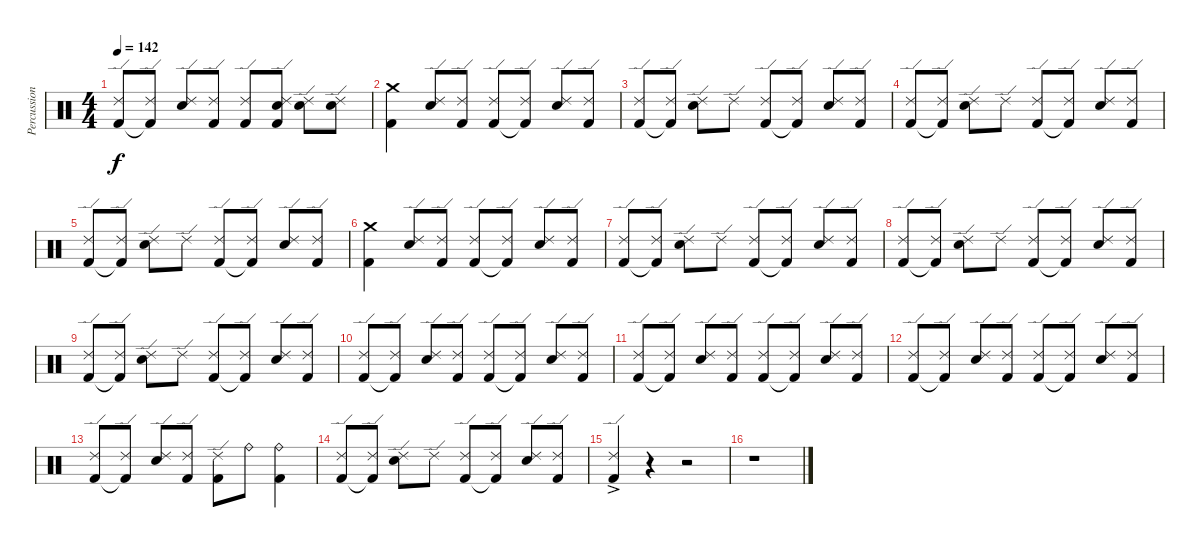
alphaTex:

\track ("Percussion" "Percussion") {instrument percussion}
\staff {score}
\articulation defaults
\ts (4 4)
\tempo 142
\clef neutral
\ks c
("Ride (edge) 2" "Kick (hit) 2").8{dy f} ("Ride (edge) 2" "Kick (hit) 2"{t}).8 ("Ride (edge) 2" "Snare (hit) 2").8 ("Ride (edge) 2" "Kick (hit) 2").8 ("Ride (edge) 2" "Kick (hit) 2").8 ("Ride (edge) 2" "Snare (hit) 2" "Kick (hit) 2").8 ("Ride (edge) 2" "Snare (hit) 2").8 ("Ride (edge) 2" "Snare (hit) 2").8 |
("Crash medium (hit)" "Kick (hit) 2").4 ("Ride (edge) 2" "Snare (hit) 2").8 ("Ride (edge) 2" "Kick (hit) 2").8 ("Ride (edge) 2" "Kick (hit) 2").8 ("Ride (edge) 2" "Kick (hit) 2"{t}).8 ("Ride (edge) 2" "Snare (hit) 2").8 ("Ride (edge) 2" "Kick (hit) 2").8 |
("Ride (edge) 2" "Kick (hit) 2").8 ("Ride (edge) 2" "Kick (hit) 2"{t}).8 ("Ride (edge) 2" "Snare (hit) 2").8 "Ride (edge) 2".8 ("Ride (edge) 2" "Kick (hit) 2").8 ("Ride (edge) 2" "Kick (hit) 2"{t}).8 ("Ride (edge) 2" "Snare (hit) 2").8 ("Ride (edge) 2" "Kick (hit) 2").8 |
("Ride (edge) 2" "Kick (hit) 2").8 ("Ride (edge) 2" "Kick (hit) 2"{t}).8 ("Ride (edge) 2" "Snare (hit) 2").8 "Ride (edge) 2".8 ("Ride (edge) 2" "Kick (hit) 2").8 ("Ride (edge) 2" "Kick (hit) 2"{t}).8 ("Ride (edge) 2" "Snare (hit) 2").8 ("Ride (edge) 2" "Kick (hit) 2").8 |
("Ride (edge) 2" "Kick (hit) 2").8 ("Ride (edge) 2" "Kick (hit) 2"{t}).8 ("Ride (edge) 2" "Snare (hit) 2").8 "Ride (edge) 2".8 ("Ride (edge) 2" "Kick (hit) 2").8 ("Ride (edge) 2" "Kick (hit) 2"{t}).8 ("Ride (edge) 2" "Snare (hit) 2").8 ("Ride (edge) 2" "Kick (hit) 2").8 |
("Crash medium (hit)" "Kick (hit) 2").4 ("Ride (edge) 2" "Snare (hit) 2").8 ("Ride (edge) 2" "Kick (hit) 2").8 ("Ride (edge) 2" "Kick (hit) 2").8 ("Ride (edge) 2" "Kick (hit) 2"{t}).8 ("Ride (edge) 2" "Snare (hit) 2").8 ("Ride (edge) 2" "Kick (hit) 2").8 |
("Ride (edge) 2" "Kick (hit) 2").8 ("Ride (edge) 2" "Kick (hit) 2"{t}).8 ("Ride (edge) 2" "Snare (hit) 2").8 "Ride (edge) 2".8 ("Ride (edge) 2" "Kick (hit) 2").8 ("Ride (edge) 2" "Kick (hit) 2"{t}).8 ("Ride (edge) 2" "Snare (hit) 2").8 ("Ride (edge) 2" "Kick (hit) 2").8 |
("Ride (edge) 2" "Kick (hit) 2").8 ("Ride (edge) 2" "Kick (hit) 2"{t}).8 ("Ride (edge) 2" "Snare (hit) 2").8 "Ride (edge) 2".8 ("Ride (edge) 2" "Kick (hit) 2").8 ("Ride (edge) 2" "Kick (hit) 2"{t}).8 ("Ride (edge) 2" "Snare (hit) 2").8 ("Ride (edge) 2" "Kick (hit) 2").8 |
("Ride (edge) 2" "Kick (hit) 2").8 ("Ride (edge) 2" "Kick (hit) 2"{t}).8 ("Ride (edge) 2" "Snare (hit) 2").8 "Ride (edge) 2".8 ("Ride (edge) 2" "Kick (hit) 2").8 ("Ride (edge) 2" "Kick (hit) 2"{t}).8 ("Ride (edge) 2" "Snare (hit) 2").8 ("Ride (edge) 2" "Kick (hit) 2").8 |
("Ride (edge) 2" "Kick (hit) 2").8 ("Ride (edge) 2" "Kick (hit) 2"{t}).8 ("Ride (edge) 2" "Snare (hit) 2").8 ("Ride (edge) 2" "Kick (hit) 2").8 ("Ride (edge) 2" "Kick (hit) 2").8 ("Ride (edge) 2" "Kick (hit) 2"{t}).8 ("Ride (edge) 2" "Snare (hit) 2").8 ("Ride (edge) 2" "Kick (hit) 2").8 |
("Ride (edge) 2" "Kick (hit) 2").8 ("Ride (edge) 2" "Kick (hit) 2"{t}).8 ("Ride (edge) 2" "Snare (hit) 2").8 ("Ride (edge) 2" "Kick (hit) 2").8 ("Ride (edge) 2" "Kick (hit) 2").8 ("Ride (edge) 2" "Kick (hit) 2"{t}).8 ("Ride (edge) 2" "Snare (hit) 2").8 ("Ride (edge) 2" "Kick (hit) 2").8 |
("Ride (edge) 2" "Kick (hit) 2").8 ("Ride (edge) 2" "Kick (hit) 2"{t}).8 ("Ride (edge) 2" "Snare (hit) 2").8 ("Ride (edge) 2" "Kick (hit) 2").8 ("Ride (edge) 2" "Kick (hit) 2").8 ("Ride (edge) 2" "Kick (hit) 2"{t}).8 ("Ride (edge) 2" "Snare (hit) 2").8 ("Ride (edge) 2" "Kick (hit) 2").8 |
("Ride (edge) 2" "Kick (hit) 2").8 ("Ride (edge) 2" "Kick (hit) 2"{t}).8 ("Ride (edge) 2" "Snare (hit) 2").8 ("Ride (edge) 2" "Kick (hit) 2").8 ("Ride (edge) 2" "Kick (hit) 2").8 "Ride (bell)".8 ("Ride (bell)" "Kick (hit) 2").4 |
("Ride (edge) 2" "Kick (hit) 2").8 ("Ride (edge) 2" "Kick (hit) 2"{t}).8 ("Ride (edge) 2" "Snare (hit) 2").8 "Ride (edge) 2".8 ("Ride (edge) 2" "Kick (hit) 2").8 ("Ride (edge) 2" "Kick (hit) 2"{t}).8 ("Ride (edge) 2" "Snare (hit) 2").8 ("Ride (edge) 2" "Kick (hit) 2").8 |
("Ride (edge) 2"{ac} "Kick (hit) 2").4 r.4 r.2 |
r.1
